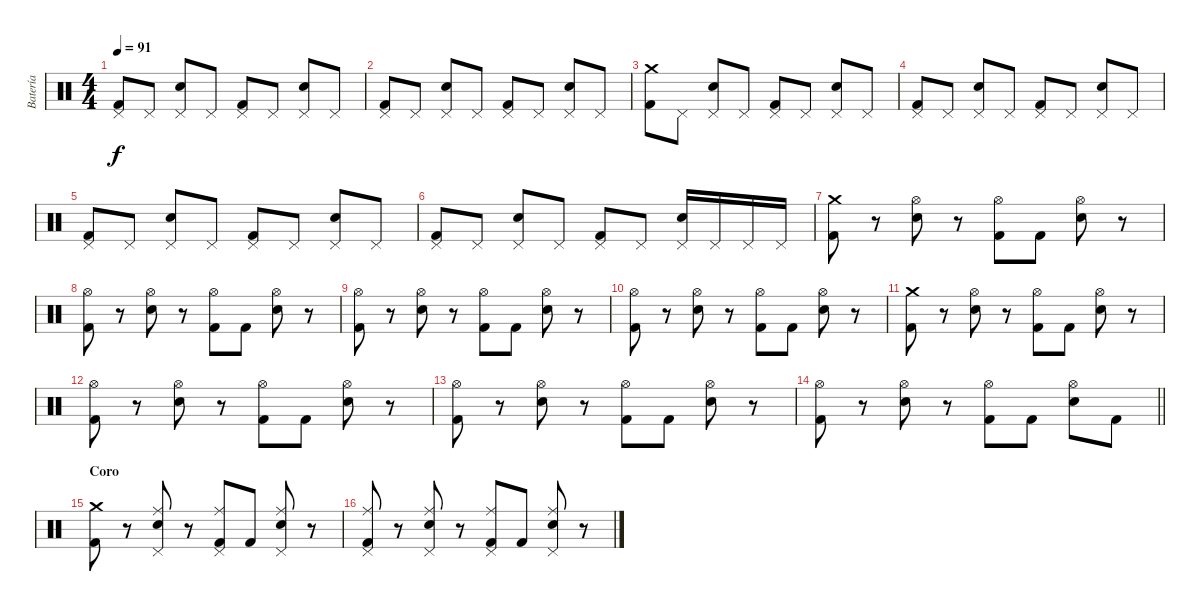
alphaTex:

\track ("Batería" "Batería") {instrument percussion}
\staff {score}
\articulation defaults
\ts (4 4)
\tempo 91
\clef neutral
\ks c
("Pedal Hi-Hat (hit)" "Kick (hit) 2").8{dy f} "Pedal Hi-Hat (hit)".8 ("Pedal Hi-Hat (hit)" "Snare (hit) 2").8 "Pedal Hi-Hat (hit)".8 ("Pedal Hi-Hat (hit)" "Kick (hit) 2").8 "Pedal Hi-Hat (hit)".8 ("Pedal Hi-Hat (hit)" "Snare (hit) 2").8 "Pedal Hi-Hat (hit)".8 |
("Pedal Hi-Hat (hit)" "Kick (hit) 2").8 "Pedal Hi-Hat (hit)".8 ("Pedal Hi-Hat (hit)" "Snare (hit) 2").8 "Pedal Hi-Hat (hit)".8 ("Pedal Hi-Hat (hit)" "Kick (hit) 2").8 "Pedal Hi-Hat (hit)".8 ("Pedal Hi-Hat (hit)" "Snare (hit) 2").8 "Pedal Hi-Hat (hit)".8 |
("Crash medium (hit)" "Kick (hit) 2").8 "Pedal Hi-Hat (hit)".8 ("Pedal Hi-Hat (hit)" "Snare (hit) 2").8 "Pedal Hi-Hat (hit)".8 ("Pedal Hi-Hat (hit)" "Kick (hit) 2").8 "Pedal Hi-Hat (hit)".8 ("Pedal Hi-Hat (hit)" "Snare (hit) 2").8 "Pedal Hi-Hat (hit)".8 |
("Pedal Hi-Hat (hit)" "Kick (hit) 2").8 "Pedal Hi-Hat (hit)".8 ("Pedal Hi-Hat (hit)" "Snare (hit) 2").8 "Pedal Hi-Hat (hit)".8 ("Pedal Hi-Hat (hit)" "Kick (hit) 2").8 "Pedal Hi-Hat (hit)".8 ("Pedal Hi-Hat (hit)" "Snare (hit) 2").8 "Pedal Hi-Hat (hit)".8 |
("Pedal Hi-Hat (hit)" "Kick (hit) 2").8 "Pedal Hi-Hat (hit)".8 ("Pedal Hi-Hat (hit)" "Snare (hit) 2").8 "Pedal Hi-Hat (hit)".8 ("Pedal Hi-Hat (hit)" "Kick (hit) 2").8 "Pedal Hi-Hat (hit)".8 ("Pedal Hi-Hat (hit)" "Snare (hit) 2").8 "Pedal Hi-Hat (hit)".8 |
("Pedal Hi-Hat (hit)" "Kick (hit) 2").8 "Pedal Hi-Hat (hit)".8 ("Pedal Hi-Hat (hit)" "Snare (hit) 2").8 "Pedal Hi-Hat (hit)".8 ("Pedal Hi-Hat (hit)" "Kick (hit) 2").8 "Pedal Hi-Hat (hit)".8 ("Pedal Hi-Hat (hit)" "Snare (hit) 2").16 "Pedal Hi-Hat (hit)".16 "Pedal Hi-Hat (hit)".16 "Pedal Hi-Hat (hit)".16 |
("Crash medium (hit)" "Kick (hit) 2").8 r.8 ("Hi-Hat (open)" "Snare (hit) 2").8 r.8 ("Hi-Hat (open)" "Kick (hit) 2").8 "Kick (hit) 2".8 ("Hi-Hat (open)" "Snare (hit) 2").8 r.8 |
("Hi-Hat (open)" "Kick (hit) 2").8 r.8 ("Hi-Hat (open)" "Snare (hit) 2").8 r.8 ("Hi-Hat (open)" "Kick (hit) 2").8 "Kick (hit) 2".8 ("Hi-Hat (open)" "Snare (hit) 2").8 r.8 |
("Hi-Hat (open)" "Kick (hit) 2").8 r.8 ("Hi-Hat (open)" "Snare (hit) 2").8 r.8 ("Hi-Hat (open)" "Kick (hit) 2").8 "Kick (hit) 2".8 ("Hi-Hat (open)" "Snare (hit) 2").8 r.8 |
("Hi-Hat (open)" "Kick (hit) 2").8 r.8 ("Hi-Hat (open)" "Snare (hit) 2").8 r.8 ("Hi-Hat (open)" "Kick (hit) 2").8 "Kick (hit) 2".8 ("Hi-Hat (open)" "Snare (hit) 2").8 r.8 |
("Crash medium (hit)" "Kick (hit) 2").8 r.8 ("Hi-Hat (open)" "Snare (hit) 2").8 r.8 ("Hi-Hat (open)" "Kick (hit) 2").8 "Kick (hit) 2".8 ("Hi-Hat (open)" "Snare (hit) 2").8 r.8 |
("Hi-Hat (open)" "Kick (hit) 2").8 r.8 ("Hi-Hat (open)" "Snare (hit) 2").8 r.8 ("Hi-Hat (open)" "Kick (hit) 2").8 "Kick (hit) 2".8 ("Hi-Hat (open)" "Snare (hit) 2").8 r.8 |
("Hi-Hat (open)" "Kick (hit) 2").8 r.8 ("Hi-Hat (open)" "Snare (hit) 2").8 r.8 ("Hi-Hat (open)" "Kick (hit) 2").8 "Kick (hit) 2".8 ("Hi-Hat (open)" "Snare (hit) 2").8 r.8 |
\barLineRight lightlight
("Hi-Hat (open)" "Kick (hit) 2").8 r.8 ("Hi-Hat (open)" "Snare (hit) 2").8 r.8 ("Hi-Hat (open)" "Kick (hit) 2").8 "Kick (hit) 2".8 ("Hi-Hat (open)" "Snare (hit) 2").8 "Kick (hit) 2".8 |
\section ("" "Coro")
("Crash medium (hit)" "Kick (hit) 2").8 r.8 ("Pedal Hi-Hat (hit)" "Snare (hit) 2" "Ride (middle)").8 r.8 ("Pedal Hi-Hat (hit)" "Kick (hit) 2" "Ride (middle)").8 "Kick (hit) 2".8 ("Pedal Hi-Hat (hit)" "Snare (hit) 2" "Ride (middle)").8 r.8 |
("Pedal Hi-Hat (hit)" "Ride (middle)" "Kick (hit) 2").8 r.8 ("Pedal Hi-Hat (hit)" "Snare (hit) 2" "Ride (middle)").8 r.8 ("Pedal Hi-Hat (hit)" "Kick (hit) 2" "Ride (middle)").8 "Kick (hit) 2".8 ("Pedal Hi-Hat (hit)" "Snare (hit) 2" "Ride (middle)").8 r.8
